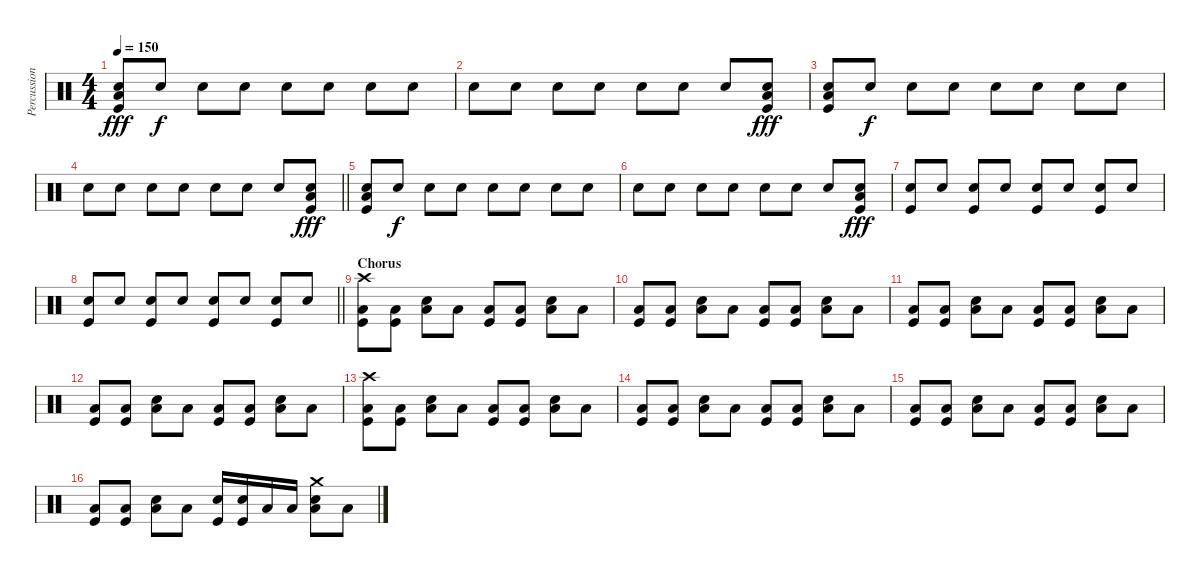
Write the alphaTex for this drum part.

\track ("Percussion" "Percussion") {instrument percussion}
\staff {score}
\articulation defaults
\ts (4 4)
\tempo 150
\clef neutral
\ks c
("Low Floor Tom (hit)" "Snare (hit) 2" "Kick (hit)").8{dy fff} "Snare (hit) 2".8{dy f} "Snare (hit) 2".8 "Snare (hit) 2".8 "Snare (hit) 2".8 "Snare (hit) 2".8 "Snare (hit) 2".8 "Snare (hit) 2".8 |
"Snare (hit) 2".8 "Snare (hit) 2".8 "Snare (hit) 2".8 "Snare (hit) 2".8 "Snare (hit) 2".8 "Snare (hit) 2".8 "Snare (hit) 2".8 ("Low Floor Tom (hit)" "Snare (hit) 2" "Kick (hit)").8{dy fff} |
("Low Floor Tom (hit)" "Snare (hit) 2" "Kick (hit)").8 "Snare (hit) 2".8{dy f} "Snare (hit) 2".8 "Snare (hit) 2".8 "Snare (hit) 2".8 "Snare (hit) 2".8 "Snare (hit) 2".8 "Snare (hit) 2".8 |
\barLineRight lightlight "Snare (hit) 2".8 "Snare (hit) 2".8 "Snare (hit) 2".8 "Snare (hit) 2".8 "Snare (hit) 2".8 "Snare (hit) 2".8 "Snare (hit) 2".8
("Low Floor Tom (hit)" "Snare (hit) 2" "Kick (hit)").8{dy fff} |
("Low Floor Tom (hit)" "Snare (hit) 2" "Kick (hit)").8 "Snare (hit) 2".8{dy f} "Snare (hit) 2".8 "Snare (hit) 2".8 "Snare (hit) 2".8 "Snare (hit) 2".8 "Snare (hit) 2".8 "Snare (hit) 2".8 |
"Snare (hit) 2".8 "Snare (hit) 2".8 "Snare (hit) 2".8 "Snare (hit) 2".8 "Snare (hit) 2".8 "Snare (hit) 2".8 "Snare (hit) 2".8 ("Low Floor Tom (hit)" "Snare (hit) 2" "Kick (hit)").8{dy fff} |
("Snare (hit) 2" "Kick (hit)").8 "Snare (hit) 2".8 ("Snare (hit) 2" "Kick (hit)").8 "Snare (hit) 2".8 ("Snare (hit) 2" "Kick (hit)").8 "Snare (hit) 2".8 ("Snare (hit) 2" "Kick (hit)").8 "Snare (hit) 2".8 |
\barLineRight lightlight
("Snare (hit) 2" "Kick (hit)").8 "Snare (hit) 2".8 ("Snare (hit) 2" "Kick (hit)").8 "Snare (hit) 2".8 ("Snare (hit) 2" "Kick (hit)").8 "Snare (hit) 2".8 ("Snare (hit) 2" "Kick (hit)").8 "Snare (hit) 2".8 |
\section ("" "Chorus")
("Crash high (hit)" "Low Floor Tom (hit)" "Kick (hit)").8 ("Low Floor Tom (hit)" "Kick (hit)").8 ("Low Floor Tom (hit)" "Snare (hit) 2").8 "Low Floor Tom (hit)".8 ("Low Floor Tom (hit)" "Kick (hit)").8 ("Low Floor Tom (hit)" "Kick (hit)").8 ("Low Floor Tom (hit)" "Snare (hit) 2").8 "Low Floor Tom (hit)".8 |
("Low Floor Tom (hit)" "Kick (hit)").8 ("Low Floor Tom (hit)" "Kick (hit)").8 ("Low Floor Tom (hit)" "Snare (hit) 2").8 "Low Floor Tom (hit)".8 ("Low Floor Tom (hit)" "Kick (hit)").8 ("Low Floor Tom (hit)" "Kick (hit)").8 ("Low Floor Tom (hit)" "Snare (hit) 2").8 "Low Floor Tom (hit)".8 |
("Low Floor Tom (hit)" "Kick (hit)").8 ("Low Floor Tom (hit)" "Kick (hit)").8 ("Low Floor Tom (hit)" "Snare (hit) 2").8 "Low Floor Tom (hit)".8 ("Low Floor Tom (hit)" "Kick (hit)").8 ("Low Floor Tom (hit)" "Kick (hit)").8 ("Low Floor Tom (hit)" "Snare (hit) 2").8 "Low Floor Tom (hit)".8 |
("Low Floor Tom (hit)" "Kick (hit)").8 ("Low Floor Tom (hit)" "Kick (hit)").8 ("Low Floor Tom (hit)" "Snare (hit) 2").8 "Low Floor Tom (hit)".8 ("Low Floor Tom (hit)" "Kick (hit)").8 ("Low Floor Tom (hit)" "Kick (hit)").8 ("Low Floor Tom (hit)" "Snare (hit) 2").8 "Low Floor Tom (hit)".8 |
("Crash high (hit)" "Low Floor Tom (hit)" "Kick (hit)").8 ("Low Floor Tom (hit)" "Kick (hit)").8 ("Low Floor Tom (hit)" "Snare (hit) 2").8 "Low Floor Tom (hit)".8 ("Low Floor Tom (hit)" "Kick (hit)").8 ("Low Floor Tom (hit)" "Kick (hit)").8 ("Low Floor Tom (hit)" "Snare (hit) 2").8 "Low Floor Tom (hit)".8 |
("Low Floor Tom (hit)" "Kick (hit)").8 ("Low Floor Tom (hit)" "Kick (hit)").8 ("Low Floor Tom (hit)" "Snare (hit) 2").8 "Low Floor Tom (hit)".8 ("Low Floor Tom (hit)" "Kick (hit)").8 ("Low Floor Tom (hit)" "Kick (hit)").8 ("Low Floor Tom (hit)" "Snare (hit) 2").8 "Low Floor Tom (hit)".8 |
("Low Floor Tom (hit)" "Kick (hit)").8 ("Low Floor Tom (hit)" "Kick (hit)").8 ("Low Floor Tom (hit)" "Snare (hit) 2").8 "Low Floor Tom (hit)".8 ("Low Floor Tom (hit)" "Kick (hit)").8 ("Low Floor Tom (hit)" "Kick (hit)").8 ("Low Floor Tom (hit)" "Snare (hit) 2").8 "Low Floor Tom (hit)".8 |
("Low Floor Tom (hit)" "Kick (hit)").8 ("Low Floor Tom (hit)" "Kick (hit)").8 ("Low Floor Tom (hit)" "Snare (hit) 2").8 "Low Floor Tom (hit)".8 ("Snare (hit) 2" "Kick (hit)").16 ("Snare (hit) 2" "Kick (hit)").16 "Low Tom (hit)".16 "Low Tom (hit)".16 ("Crash medium (hit)" "Low Floor Tom (hit)" "Snare (hit) 2").8 "Low Floor Tom (hit)".8
